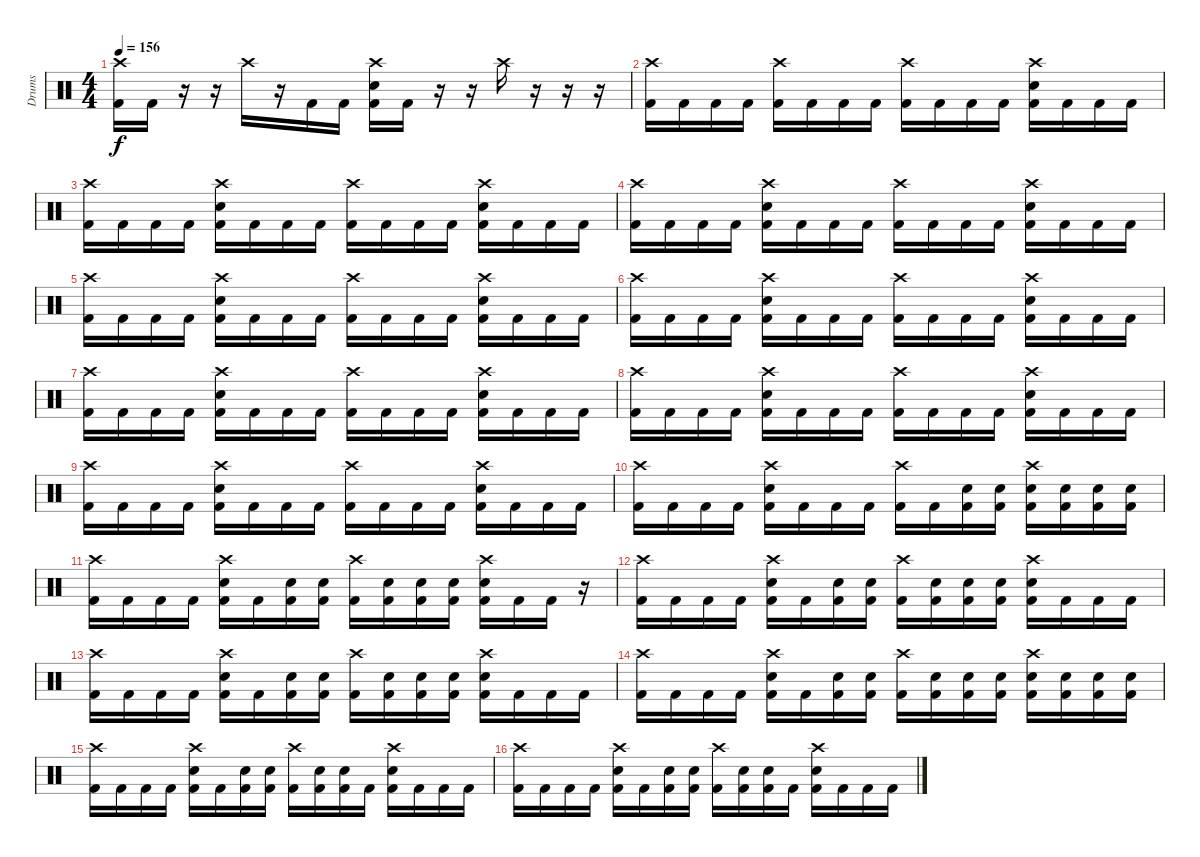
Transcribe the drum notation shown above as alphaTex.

\track ("Drums" "Drums") {instrument percussion}
\staff {score}
\articulation defaults
\ts (4 4)
\tempo 156
\clef neutral
\ks c
("Crash high (hit)" "Kick (hit) 2").16{dy f} "Kick (hit) 2".16 r.16 r.16 "Crash high (hit)".16 r.16 "Kick (hit) 2".16 "Kick (hit) 2".16 ("Crash high (hit)" "Electric Snare (hit)" "Kick (hit) 2").16 "Kick (hit) 2".16 r.16 r.16 "Crash high (hit)".16 r.16 r.16 r.16 |
("Crash high (hit)" "Kick (hit) 2").16 "Kick (hit) 2".16 "Kick (hit) 2".16 "Kick (hit) 2".16 ("Crash high (hit)" "Kick (hit) 2").16 "Kick (hit) 2".16 "Kick (hit) 2".16 "Kick (hit) 2".16 ("Crash high (hit)" "Kick (hit) 2").16 "Kick (hit) 2".16 "Kick (hit) 2".16 "Kick (hit) 2".16 ("Crash high (hit)" "Electric Snare (hit)" "Kick (hit) 2").16 "Kick (hit) 2".16 "Kick (hit) 2".16 "Kick (hit) 2".16 |
("Crash high (hit)" "Kick (hit) 2").16 "Kick (hit) 2".16 "Kick (hit) 2".16 "Kick (hit) 2".16 ("Crash high (hit)" "Electric Snare (hit)" "Kick (hit) 2").16 "Kick (hit) 2".16 "Kick (hit) 2".16 "Kick (hit) 2".16 ("Crash high (hit)" "Kick (hit) 2").16 "Kick (hit) 2".16 "Kick (hit) 2".16 "Kick (hit) 2".16 ("Crash high (hit)" "Electric Snare (hit)" "Kick (hit) 2").16 "Kick (hit) 2".16 "Kick (hit) 2".16 "Kick (hit) 2".16 |
("Crash high (hit)" "Kick (hit) 2").16 "Kick (hit) 2".16 "Kick (hit) 2".16 "Kick (hit) 2".16 ("Crash high (hit)" "Electric Snare (hit)" "Kick (hit) 2").16 "Kick (hit) 2".16 "Kick (hit) 2".16 "Kick (hit) 2".16 ("Crash high (hit)" "Kick (hit) 2").16 "Kick (hit) 2".16 "Kick (hit) 2".16 "Kick (hit) 2".16 ("Crash high (hit)" "Electric Snare (hit)" "Kick (hit) 2").16 "Kick (hit) 2".16 "Kick (hit) 2".16 "Kick (hit) 2".16 |
("Crash high (hit)" "Kick (hit) 2").16 "Kick (hit) 2".16 "Kick (hit) 2".16 "Kick (hit) 2".16 ("Crash high (hit)" "Electric Snare (hit)" "Kick (hit) 2").16 "Kick (hit) 2".16 "Kick (hit) 2".16 "Kick (hit) 2".16 ("Crash high (hit)" "Kick (hit) 2").16 "Kick (hit) 2".16 "Kick (hit) 2".16 "Kick (hit) 2".16 ("Crash high (hit)" "Electric Snare (hit)" "Kick (hit) 2").16 "Kick (hit) 2".16 "Kick (hit) 2".16 "Kick (hit) 2".16 |
("Crash high (hit)" "Kick (hit) 2").16 "Kick (hit) 2".16 "Kick (hit) 2".16 "Kick (hit) 2".16 ("Crash high (hit)" "Electric Snare (hit)" "Kick (hit) 2").16 "Kick (hit) 2".16 "Kick (hit) 2".16 "Kick (hit) 2".16 ("Crash high (hit)" "Kick (hit) 2").16 "Kick (hit) 2".16 "Kick (hit) 2".16 "Kick (hit) 2".16 ("Crash high (hit)" "Electric Snare (hit)" "Kick (hit) 2").16 "Kick (hit) 2".16 "Kick (hit) 2".16 "Kick (hit) 2".16 |
("Crash high (hit)" "Kick (hit) 2").16 "Kick (hit) 2".16 "Kick (hit) 2".16 "Kick (hit) 2".16 ("Crash high (hit)" "Electric Snare (hit)" "Kick (hit) 2").16 "Kick (hit) 2".16 "Kick (hit) 2".16 "Kick (hit) 2".16 ("Crash high (hit)" "Kick (hit) 2").16 "Kick (hit) 2".16 "Kick (hit) 2".16 "Kick (hit) 2".16 ("Crash high (hit)" "Electric Snare (hit)" "Kick (hit) 2").16 "Kick (hit) 2".16 "Kick (hit) 2".16 "Kick (hit) 2".16 |
("Crash high (hit)" "Kick (hit) 2").16 "Kick (hit) 2".16 "Kick (hit) 2".16 "Kick (hit) 2".16 ("Crash high (hit)" "Electric Snare (hit)" "Kick (hit) 2").16 "Kick (hit) 2".16 "Kick (hit) 2".16 "Kick (hit) 2".16 ("Crash high (hit)" "Kick (hit) 2").16 "Kick (hit) 2".16 "Kick (hit) 2".16 "Kick (hit) 2".16 ("Crash high (hit)" "Electric Snare (hit)" "Kick (hit) 2").16 "Kick (hit) 2".16 "Kick (hit) 2".16 "Kick (hit) 2".16 |
("Crash high (hit)" "Kick (hit) 2").16 "Kick (hit) 2".16 "Kick (hit) 2".16 "Kick (hit) 2".16 ("Crash high (hit)" "Electric Snare (hit)" "Kick (hit) 2").16 "Kick (hit) 2".16 "Kick (hit) 2".16 "Kick (hit) 2".16 ("Crash high (hit)" "Kick (hit) 2").16 "Kick (hit) 2".16 "Kick (hit) 2".16 "Kick (hit) 2".16 ("Crash high (hit)" "Electric Snare (hit)" "Kick (hit) 2").16 "Kick (hit) 2".16 "Kick (hit) 2".16 "Kick (hit) 2".16 |
("Crash high (hit)" "Kick (hit) 2").16 "Kick (hit) 2".16 "Kick (hit) 2".16 "Kick (hit) 2".16 ("Crash high (hit)" "Electric Snare (hit)" "Kick (hit) 2").16 "Kick (hit) 2".16 "Kick (hit) 2".16 "Kick (hit) 2".16 ("Crash high (hit)" "Kick (hit) 2").16 "Kick (hit) 2".16 ("Electric Snare (hit)" "Kick (hit) 2").16 ("Electric Snare (hit)" "Kick (hit) 2").16 ("Crash high (hit)" "Electric Snare (hit)" "Kick (hit) 2").16 ("Electric Snare (hit)" "Kick (hit) 2").16 ("Electric Snare (hit)" "Kick (hit) 2").16 ("Electric Snare (hit)" "Kick (hit) 2").16 |
("Crash high (hit)" "Kick (hit) 2").16 "Kick (hit) 2".16 "Kick (hit) 2".16 "Kick (hit) 2".16 ("Crash high (hit)" "Electric Snare (hit)" "Kick (hit) 2").16 "Kick (hit) 2".16 ("Electric Snare (hit)" "Kick (hit) 2").16 ("Electric Snare (hit)" "Kick (hit) 2").16 ("Crash high (hit)" "Kick (hit) 2").16 ("Electric Snare (hit)" "Kick (hit) 2").16 ("Electric Snare (hit)" "Kick (hit) 2").16 ("Electric Snare (hit)" "Kick (hit) 2").16 ("Crash high (hit)" "Electric Snare (hit)" "Kick (hit) 2").16 "Kick (hit) 2".16 "Kick (hit) 2".16 r.16 |
("Crash high (hit)" "Kick (hit) 2").16 "Kick (hit) 2".16 "Kick (hit) 2".16 "Kick (hit) 2".16 ("Crash high (hit)" "Electric Snare (hit)" "Kick (hit) 2").16 "Kick (hit) 2".16 ("Electric Snare (hit)" "Kick (hit) 2").16 ("Electric Snare (hit)" "Kick (hit) 2").16 ("Crash high (hit)" "Kick (hit) 2").16 ("Electric Snare (hit)" "Kick (hit) 2").16 ("Electric Snare (hit)" "Kick (hit) 2").16 ("Electric Snare (hit)" "Kick (hit) 2").16 ("Crash high (hit)" "Electric Snare (hit)" "Kick (hit) 2").16 "Kick (hit) 2".16 "Kick (hit) 2".16 "Kick (hit) 2".16 |
("Crash high (hit)" "Kick (hit) 2").16 "Kick (hit) 2".16 "Kick (hit) 2".16 "Kick (hit) 2".16 ("Crash high (hit)" "Electric Snare (hit)" "Kick (hit) 2").16 "Kick (hit) 2".16 ("Electric Snare (hit)" "Kick (hit) 2").16 ("Electric Snare (hit)" "Kick (hit) 2").16 ("Crash high (hit)" "Kick (hit) 2").16 ("Electric Snare (hit)" "Kick (hit) 2").16 ("Electric Snare (hit)" "Kick (hit) 2").16 ("Electric Snare (hit)" "Kick (hit) 2").16 ("Crash high (hit)" "Electric Snare (hit)" "Kick (hit) 2").16 "Kick (hit) 2".16 "Kick (hit) 2".16 "Kick (hit) 2".16 |
("Crash high (hit)" "Kick (hit) 2").16 "Kick (hit) 2".16 "Kick (hit) 2".16 "Kick (hit) 2".16 ("Crash high (hit)" "Electric Snare (hit)" "Kick (hit) 2").16 "Kick (hit) 2".16 ("Electric Snare (hit)" "Kick (hit) 2").16 ("Electric Snare (hit)" "Kick (hit) 2").16 ("Crash high (hit)" "Kick (hit) 2").16 ("Electric Snare (hit)" "Kick (hit) 2").16 ("Electric Snare (hit)" "Kick (hit) 2").16 ("Electric Snare (hit)" "Kick (hit) 2").16 ("Crash high (hit)" "Electric Snare (hit)" "Kick (hit) 2").16 ("Electric Snare (hit)" "Kick (hit) 2").16 ("Electric Snare (hit)" "Kick (hit) 2").16 ("Electric Snare (hit)" "Kick (hit) 2").16 |
("Crash high (hit)" "Kick (hit) 2").16 "Kick (hit) 2".16 "Kick (hit) 2".16 "Kick (hit) 2".16 ("Crash high (hit)" "Electric Snare (hit)" "Kick (hit) 2").16 "Kick (hit) 2".16 ("Electric Snare (hit)" "Kick (hit) 2").16 ("Electric Snare (hit)" "Kick (hit) 2").16 ("Crash high (hit)" "Kick (hit) 2").16 ("Electric Snare (hit)" "Kick (hit) 2").16 ("Electric Snare (hit)" "Kick (hit) 2").16 "Kick (hit) 2".16 ("Crash high (hit)" "Electric Snare (hit)" "Kick (hit) 2").16 "Kick (hit) 2".16 "Kick (hit) 2".16 "Kick (hit) 2".16 |
("Crash high (hit)" "Kick (hit) 2").16 "Kick (hit) 2".16 "Kick (hit) 2".16 "Kick (hit) 2".16 ("Crash high (hit)" "Electric Snare (hit)" "Kick (hit) 2").16 "Kick (hit) 2".16 ("Electric Snare (hit)" "Kick (hit) 2").16 ("Electric Snare (hit)" "Kick (hit) 2").16 ("Crash high (hit)" "Kick (hit) 2").16 ("Electric Snare (hit)" "Kick (hit) 2").16 ("Electric Snare (hit)" "Kick (hit) 2").16 "Kick (hit) 2".16 ("Crash high (hit)" "Electric Snare (hit)" "Kick (hit) 2").16 "Kick (hit) 2".16 "Kick (hit) 2".16 "Kick (hit) 2".16
